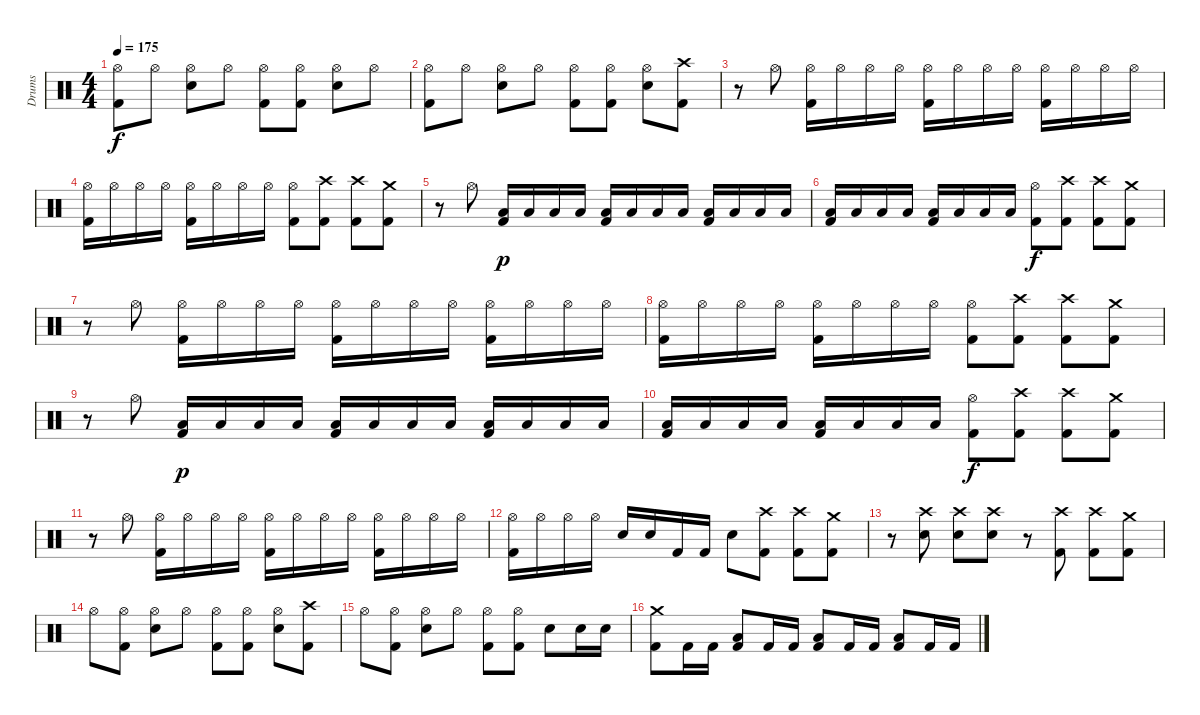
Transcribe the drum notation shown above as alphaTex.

\track ("Drums" "Drums") {instrument percussion}
\staff {score}
\articulation defaults
\ts (4 4)
\tempo 175
\clef neutral
\ks c
("Hi-Hat (open)" "Kick (hit) 2").8{dy f} "Hi-Hat (open)".8 ("Hi-Hat (open)" "Snare (hit) 2").8 "Hi-Hat (open)".8 ("Hi-Hat (open)" "Kick (hit) 2").8 ("Hi-Hat (open)" "Kick (hit) 2").8 ("Hi-Hat (open)" "Snare (hit) 2").8 "Hi-Hat (open)".8 |
("Hi-Hat (open)" "Kick (hit) 2").8 "Hi-Hat (open)".8 ("Hi-Hat (open)" "Snare (hit) 2").8 "Hi-Hat (open)".8 ("Hi-Hat (open)" "Kick (hit) 2").8 ("Hi-Hat (open)" "Kick (hit) 2").8 ("Hi-Hat (open)" "Snare (hit) 2").8 ("Crash high (hit)" "Kick (hit) 2").8 |
r.8 "Hi-Hat (open)".8 ("Hi-Hat (open)" "Kick (hit) 2").16 "Hi-Hat (open)".16 "Hi-Hat (open)".16 "Hi-Hat (open)".16 ("Hi-Hat (open)" "Kick (hit) 2").16 "Hi-Hat (open)".16 "Hi-Hat (open)".16 "Hi-Hat (open)".16 ("Hi-Hat (open)" "Kick (hit) 2").16 "Hi-Hat (open)".16 "Hi-Hat (open)".16 "Hi-Hat (open)".16 |
("Hi-Hat (open)" "Kick (hit) 2").16 "Hi-Hat (open)".16 "Hi-Hat (open)".16 "Hi-Hat (open)".16 ("Hi-Hat (open)" "Kick (hit) 2").16 "Hi-Hat (open)".16 "Hi-Hat (open)".16 "Hi-Hat (open)".16 ("Hi-Hat (open)" "Kick (hit) 2").8 ("Crash high (hit)" "Kick (hit) 2").8 ("Crash high (hit)" "Kick (hit) 2").8 ("Crash medium (hit)" "Kick (hit) 2").8 |
r.8 "Hi-Hat (open)".8 ("Low Floor Tom (hit)" "Kick (hit) 2").16{dy p} "Low Floor Tom (hit)".16 "Low Floor Tom (hit)".16 "Low Floor Tom (hit)".16 ("Low Floor Tom (hit)" "Kick (hit) 2").16 "Low Floor Tom (hit)".16 "Low Floor Tom (hit)".16 "Low Floor Tom (hit)".16 ("Low Floor Tom (hit)" "Kick (hit) 2").16 "Low Floor Tom (hit)".16 "Low Floor Tom (hit)".16 "Low Floor Tom (hit)".16 |
("Low Floor Tom (hit)" "Kick (hit) 2").16 "Low Floor Tom (hit)".16 "Low Floor Tom (hit)".16 "Low Floor Tom (hit)".16 ("Low Floor Tom (hit)" "Kick (hit) 2").16 "Low Floor Tom (hit)".16 "Low Floor Tom (hit)".16 "Low Floor Tom (hit)".16 ("Hi-Hat (open)" "Kick (hit) 2").8{dy f} ("Crash high (hit)" "Kick (hit) 2").8 ("Crash high (hit)" "Kick (hit) 2").8 ("Crash medium (hit)" "Kick (hit) 2").8 |
r.8 "Hi-Hat (open)".8 ("Hi-Hat (open)" "Kick (hit) 2").16 "Hi-Hat (open)".16 "Hi-Hat (open)".16 "Hi-Hat (open)".16 ("Hi-Hat (open)" "Kick (hit) 2").16 "Hi-Hat (open)".16 "Hi-Hat (open)".16 "Hi-Hat (open)".16 ("Hi-Hat (open)" "Kick (hit) 2").16 "Hi-Hat (open)".16 "Hi-Hat (open)".16 "Hi-Hat (open)".16 |
("Hi-Hat (open)" "Kick (hit) 2").16 "Hi-Hat (open)".16 "Hi-Hat (open)".16 "Hi-Hat (open)".16 ("Hi-Hat (open)" "Kick (hit) 2").16 "Hi-Hat (open)".16 "Hi-Hat (open)".16 "Hi-Hat (open)".16 ("Hi-Hat (open)" "Kick (hit) 2").8 ("Crash high (hit)" "Kick (hit) 2").8 ("Crash high (hit)" "Kick (hit) 2").8 ("Crash medium (hit)" "Kick (hit) 2").8 |
r.8 "Hi-Hat (open)".8 ("Low Floor Tom (hit)" "Kick (hit) 2").16{dy p} "Low Floor Tom (hit)".16 "Low Floor Tom (hit)".16 "Low Floor Tom (hit)".16 ("Low Floor Tom (hit)" "Kick (hit) 2").16 "Low Floor Tom (hit)".16 "Low Floor Tom (hit)".16 "Low Floor Tom (hit)".16 ("Low Floor Tom (hit)" "Kick (hit) 2").16 "Low Floor Tom (hit)".16 "Low Floor Tom (hit)".16 "Low Floor Tom (hit)".16 |
("Low Floor Tom (hit)" "Kick (hit) 2").16 "Low Floor Tom (hit)".16 "Low Floor Tom (hit)".16 "Low Floor Tom (hit)".16 ("Low Floor Tom (hit)" "Kick (hit) 2").16 "Low Floor Tom (hit)".16 "Low Floor Tom (hit)".16 "Low Floor Tom (hit)".16 ("Hi-Hat (open)" "Kick (hit) 2").8{dy f} ("Crash high (hit)" "Kick (hit) 2").8 ("Crash high (hit)" "Kick (hit) 2").8 ("Crash medium (hit)" "Kick (hit) 2").8 |
r.8 "Hi-Hat (open)".8 ("Hi-Hat (open)" "Kick (hit) 2").16 "Hi-Hat (open)".16 "Hi-Hat (open)".16 "Hi-Hat (open)".16 ("Hi-Hat (open)" "Kick (hit) 2").16 "Hi-Hat (open)".16 "Hi-Hat (open)".16 "Hi-Hat (open)".16 ("Hi-Hat (open)" "Kick (hit) 2").16 "Hi-Hat (open)".16 "Hi-Hat (open)".16 "Hi-Hat (open)".16 |
("Hi-Hat (open)" "Kick (hit) 2").16 "Hi-Hat (open)".16 "Hi-Hat (open)".16 "Hi-Hat (open)".16 "Snare (hit) 2".16 "Snare (hit) 2".16 "Kick (hit) 2".16 "Kick (hit) 2".16 "Snare (hit) 2".8 ("Crash high (hit)" "Kick (hit) 2").8 ("Crash high (hit)" "Kick (hit) 2").8 ("Crash medium (hit)" "Kick (hit) 2").8 |
r.8 ("Crash high (hit)" "Snare (hit) 2").8 ("Crash high (hit)" "Snare (hit) 2").8 ("Crash high (hit)" "Snare (hit) 2").8 r.8 ("Crash high (hit)" "Kick (hit) 2").8 ("Crash high (hit)" "Kick (hit) 2").8 ("Crash medium (hit)" "Kick (hit) 2").8 |
"Hi-Hat (open)".8 ("Hi-Hat (open)" "Kick (hit) 2").8 ("Hi-Hat (open)" "Snare (hit) 2").8 "Hi-Hat (open)".8 ("Hi-Hat (open)" "Kick (hit) 2").8 ("Hi-Hat (open)" "Kick (hit) 2").8 ("Hi-Hat (open)" "Snare (hit) 2").8 ("Crash high (hit)" "Kick (hit) 2").8 |
"Hi-Hat (open)".8 ("Hi-Hat (open)" "Kick (hit) 2").8 ("Hi-Hat (open)" "Snare (hit) 2").8 "Hi-Hat (open)".8 ("Hi-Hat (open)" "Kick (hit) 2").8 ("Hi-Hat (open)" "Kick (hit) 2").8 "Snare (hit) 2".8 "Snare (hit) 2".16 "Snare (hit) 2".16 |
("Crash medium (hit)" "Kick (hit) 2").8 "Kick (hit) 2".16 "Kick (hit) 2".16 ("Low Floor Tom (hit)" "Kick (hit) 2").8 "Kick (hit) 2".16 "Kick (hit) 2".16 ("Low Floor Tom (hit)" "Kick (hit) 2").8 "Kick (hit) 2".16 "Kick (hit) 2".16 ("Low Floor Tom (hit)" "Kick (hit) 2").8 "Kick (hit) 2".16 "Kick (hit) 2".16
